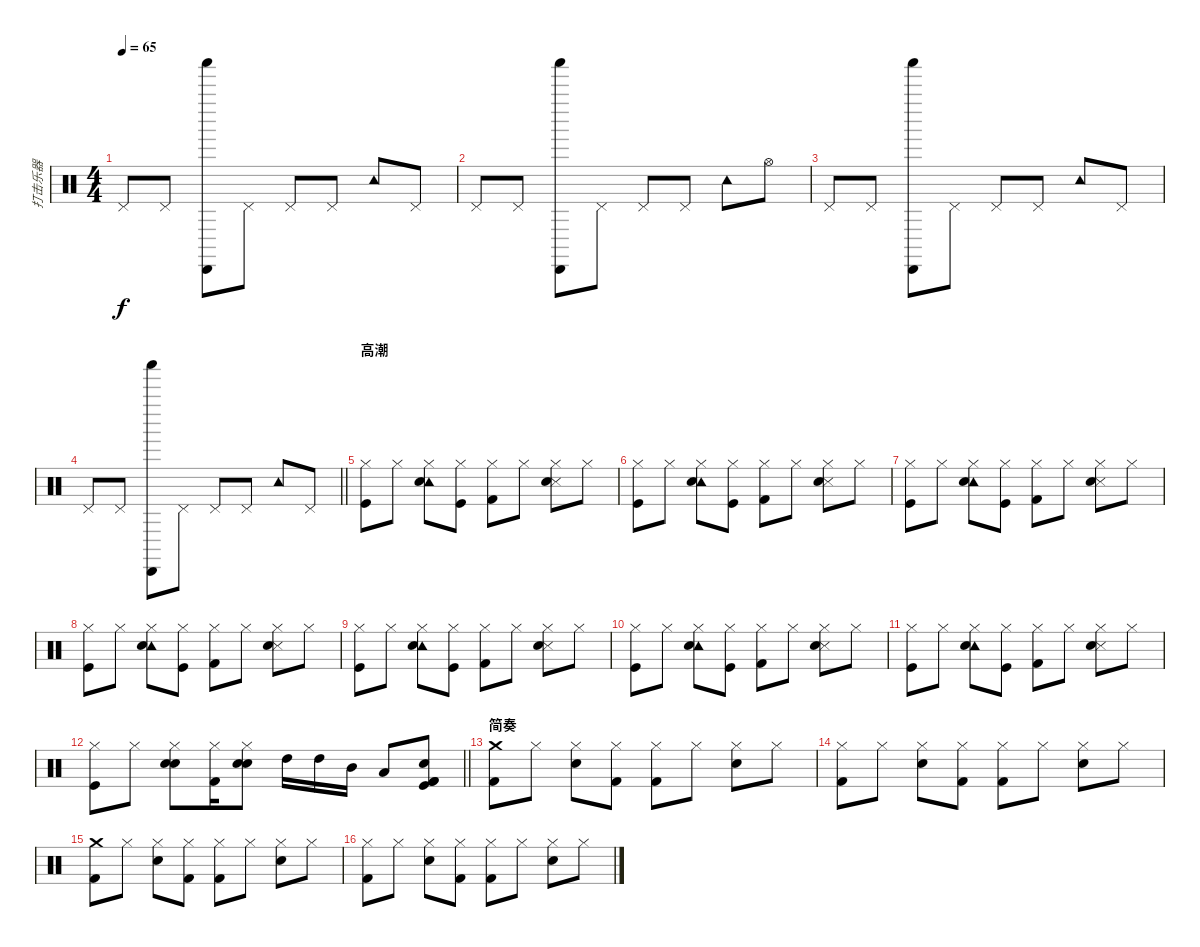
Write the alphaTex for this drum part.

\track ("打击乐器" "打击乐器") {instrument percussion}
\staff {score}
\articulation defaults
\ts (4 4)
\tempo 65
\clef neutral
\ks c "Pedal Hi-Hat (hit)".8{dy f} "Pedal Hi-Hat (hit)".8
("Shaker (hit)" "Cabasa (hit)").8 "Pedal Hi-Hat (hit)".8 "Pedal Hi-Hat (hit)".8 "Pedal Hi-Hat (hit)".8 "Tambourine (hit)".8 "Pedal Hi-Hat (hit)".8 |
"Pedal Hi-Hat (hit)".8 "Pedal Hi-Hat (hit)".8 ("Shaker (hit)" "Cabasa (hit)").8 "Pedal Hi-Hat (hit)".8 "Pedal Hi-Hat (hit)".8 "Pedal Hi-Hat (hit)".8 "Tambourine (hit)".8 "Hi-Hat (open)".8 |
"Pedal Hi-Hat (hit)".8 "Pedal Hi-Hat (hit)".8 ("Shaker (hit)" "Cabasa (hit)").8 "Pedal Hi-Hat (hit)".8 "Pedal Hi-Hat (hit)".8 "Pedal Hi-Hat (hit)".8 "Tambourine (hit)".8 "Pedal Hi-Hat (hit)".8 |
\barLineRight lightlight "Pedal Hi-Hat (hit)".8 "Pedal Hi-Hat (hit)".8
("Shaker (hit)" "Cabasa (hit)").8 "Pedal Hi-Hat (hit)".8 "Pedal Hi-Hat (hit)".8 "Pedal Hi-Hat (hit)".8 "Tambourine (hit)".8 "Pedal Hi-Hat (hit)".8 |
\section ("" "高潮")
("Hi-Hat (closed)" "Kick (hit)").8 "Hi-Hat (closed)".8 ("Hi-Hat (closed)" "Tambourine (hit)" "Hand Clap (hit)").8 ("Hi-Hat (closed)" "Kick (hit)").8 ("Hi-Hat (closed)" "Kick (hit) 2").8 "Hi-Hat (closed)".8 ("Hi-Hat (closed)" "Snare (side stick) 3" "Hand Clap (hit)").8 "Hi-Hat (closed)".8 |
("Hi-Hat (closed)" "Kick (hit)").8 "Hi-Hat (closed)".8 ("Hi-Hat (closed)" "Tambourine (hit)" "Hand Clap (hit)").8 ("Hi-Hat (closed)" "Kick (hit)").8 ("Hi-Hat (closed)" "Kick (hit) 2").8 "Hi-Hat (closed)".8 ("Hi-Hat (closed)" "Snare (side stick) 3" "Hand Clap (hit)").8 "Hi-Hat (closed)".8 |
("Hi-Hat (closed)" "Kick (hit)").8 "Hi-Hat (closed)".8 ("Hi-Hat (closed)" "Tambourine (hit)" "Hand Clap (hit)").8 ("Hi-Hat (closed)" "Kick (hit)").8 ("Hi-Hat (closed)" "Kick (hit) 2").8 "Hi-Hat (closed)".8 ("Hi-Hat (closed)" "Snare (side stick) 3" "Hand Clap (hit)").8 "Hi-Hat (closed)".8 |
("Hi-Hat (closed)" "Kick (hit)").8 "Hi-Hat (closed)".8 ("Hi-Hat (closed)" "Tambourine (hit)" "Hand Clap (hit)").8 ("Hi-Hat (closed)" "Kick (hit)").8 ("Hi-Hat (closed)" "Kick (hit) 2").8 "Hi-Hat (closed)".8 ("Hi-Hat (closed)" "Snare (side stick) 3" "Hand Clap (hit)").8 "Hi-Hat (closed)".8 |
("Hi-Hat (closed)" "Kick (hit)").8 "Hi-Hat (closed)".8 ("Hi-Hat (closed)" "Tambourine (hit)" "Hand Clap (hit)").8 ("Hi-Hat (closed)" "Kick (hit)").8 ("Hi-Hat (closed)" "Kick (hit) 2").8 "Hi-Hat (closed)".8 ("Hi-Hat (closed)" "Snare (side stick) 3" "Hand Clap (hit)").8 "Hi-Hat (closed)".8 |
("Hi-Hat (closed)" "Kick (hit)").8 "Hi-Hat (closed)".8 ("Hi-Hat (closed)" "Tambourine (hit)" "Hand Clap (hit)").8 ("Hi-Hat (closed)" "Kick (hit)").8 ("Hi-Hat (closed)" "Kick (hit) 2").8 "Hi-Hat (closed)".8 ("Hi-Hat (closed)" "Snare (side stick) 3" "Hand Clap (hit)").8 "Hi-Hat (closed)".8 |
("Hi-Hat (closed)" "Kick (hit)").8 "Hi-Hat (closed)".8 ("Hi-Hat (closed)" "Tambourine (hit)" "Hand Clap (hit)").8 ("Hi-Hat (closed)" "Kick (hit)").8 ("Hi-Hat (closed)" "Kick (hit) 2").8 "Hi-Hat (closed)".8 ("Hi-Hat (closed)" "Snare (side stick) 3" "Hand Clap (hit)").8 "Hi-Hat (closed)".8 |
\barLineRight lightlight
("Hi-Hat (closed)" "Kick (hit)").8 "Hi-Hat (closed)".8 ("Hi-Hat (closed)" "Electric Snare (hit)" "Hand Clap (hit)").8 ("Hi-Hat (closed)" "Kick (hit) 2").16 ("Hi-Hat (closed)" "Electric Snare (hit)" "Hand Clap (hit)").8 "High Tom (hit)".16 "High Tom (hit)".16 "Mid Tom (hit)".16 "Low Tom (hit)".8 ("Electric Snare (hit)" "Kick (hit) 2" "Kick (hit) 2" "Kick (hit)").8 |
\section ("" "简奏")
("Crash medium (hit)" "Kick (hit) 2").8 "Hi-Hat (closed)".8 ("Hi-Hat (closed)" "Electric Snare (hit)").8 ("Hi-Hat (closed)" "Kick (hit) 2").8 ("Hi-Hat (closed)" "Kick (hit) 2").8 "Hi-Hat (closed)".8 ("Hi-Hat (closed)" "Electric Snare (hit)").8 "Hi-Hat (closed)".8 |
("Hi-Hat (closed)" "Kick (hit) 2").8 "Hi-Hat (closed)".8 ("Hi-Hat (closed)" "Electric Snare (hit)").8 ("Hi-Hat (closed)" "Kick (hit) 2").8 ("Hi-Hat (closed)" "Kick (hit) 2").8 "Hi-Hat (closed)".8 ("Hi-Hat (closed)" "Electric Snare (hit)").8 "Hi-Hat (closed)".8 |
("Crash medium (hit)" "Kick (hit) 2").8 "Hi-Hat (closed)".8 ("Hi-Hat (closed)" "Electric Snare (hit)").8 ("Hi-Hat (closed)" "Kick (hit) 2").8 ("Hi-Hat (closed)" "Kick (hit) 2").8 "Hi-Hat (closed)".8 ("Hi-Hat (closed)" "Electric Snare (hit)").8 "Hi-Hat (closed)".8 |
("Hi-Hat (closed)" "Kick (hit) 2").8 "Hi-Hat (closed)".8 ("Hi-Hat (closed)" "Electric Snare (hit)").8 ("Hi-Hat (closed)" "Kick (hit) 2").8 ("Hi-Hat (closed)" "Kick (hit) 2").8 "Hi-Hat (closed)".8 ("Hi-Hat (closed)" "Electric Snare (hit)").8 "Hi-Hat (closed)".8
